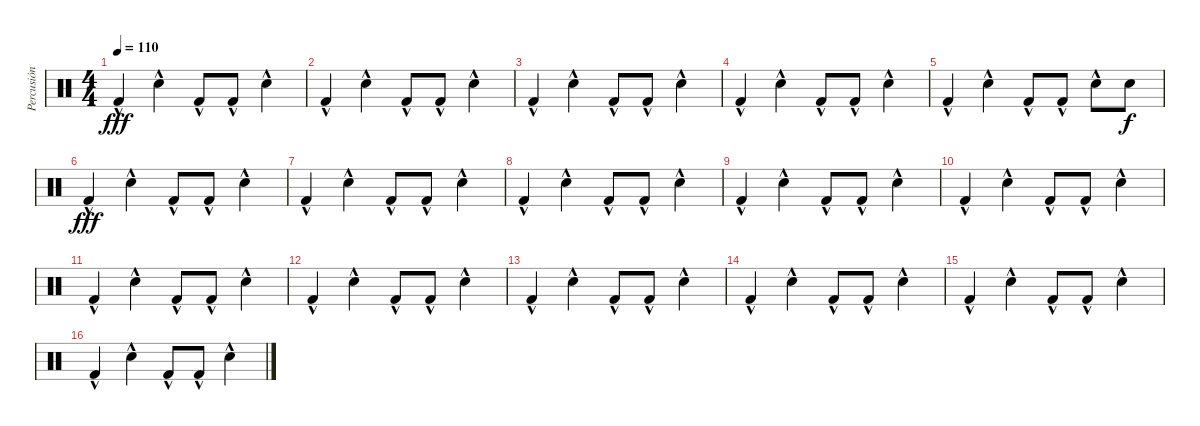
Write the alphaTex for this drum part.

\track ("Percusión" "Percusión") {instrument percussion}
\staff {score}
\articulation defaults
\ts (4 4)
\tempo 110
\clef neutral
\ks c "Kick (hit) 2"{hac}.4{dy fff} "Electric Snare (hit)"{hac}.4 "Kick (hit) 2"{hac}.8 "Kick (hit) 2"{hac}.8 "Electric Snare (hit)"{hac}.4
|
"Kick (hit) 2"{hac}.4 "Electric Snare (hit)"{hac}.4 "Kick (hit) 2"{hac}.8 "Kick (hit) 2"{hac}.8 "Electric Snare (hit)"{hac}.4 |
"Kick (hit) 2"{hac}.4 "Electric Snare (hit)"{hac}.4 "Kick (hit) 2"{hac}.8 "Kick (hit) 2"{hac}.8 "Electric Snare (hit)"{hac}.4 |
"Kick (hit) 2"{hac}.4 "Electric Snare (hit)"{hac}.4 "Kick (hit) 2"{hac}.8 "Kick (hit) 2"{hac}.8 "Electric Snare (hit)"{hac}.4 |
"Kick (hit) 2"{hac}.4 "Electric Snare (hit)"{hac}.4 "Kick (hit) 2"{hac}.8 "Kick (hit) 2"{hac}.8 "Electric Snare (hit)"{hac}.8 "Electric Snare (hit)".8{dy f} |
"Kick (hit) 2"{hac}.4{dy fff} "Electric Snare (hit)"{hac}.4 "Kick (hit) 2"{hac}.8 "Kick (hit) 2"{hac}.8 "Electric Snare (hit)"{hac}.4 |
"Kick (hit) 2"{hac}.4 "Electric Snare (hit)"{hac}.4 "Kick (hit) 2"{hac}.8 "Kick (hit) 2"{hac}.8 "Electric Snare (hit)"{hac}.4 |
"Kick (hit) 2"{hac}.4 "Electric Snare (hit)"{hac}.4 "Kick (hit) 2"{hac}.8 "Kick (hit) 2"{hac}.8 "Electric Snare (hit)"{hac}.4 |
"Kick (hit) 2"{hac}.4 "Electric Snare (hit)"{hac}.4 "Kick (hit) 2"{hac}.8 "Kick (hit) 2"{hac}.8 "Electric Snare (hit)"{hac}.4 |
"Kick (hit) 2"{hac}.4 "Electric Snare (hit)"{hac}.4 "Kick (hit) 2"{hac}.8 "Kick (hit) 2"{hac}.8 "Electric Snare (hit)"{hac}.4 |
"Kick (hit) 2"{hac}.4 "Electric Snare (hit)"{hac}.4 "Kick (hit) 2"{hac}.8 "Kick (hit) 2"{hac}.8 "Electric Snare (hit)"{hac}.4 |
"Kick (hit) 2"{hac}.4 "Electric Snare (hit)"{hac}.4 "Kick (hit) 2"{hac}.8 "Kick (hit) 2"{hac}.8 "Electric Snare (hit)"{hac}.4 |
"Kick (hit) 2"{hac}.4 "Electric Snare (hit)"{hac}.4 "Kick (hit) 2"{hac}.8 "Kick (hit) 2"{hac}.8 "Electric Snare (hit)"{hac}.4 |
"Kick (hit) 2"{hac}.4 "Electric Snare (hit)"{hac}.4 "Kick (hit) 2"{hac}.8 "Kick (hit) 2"{hac}.8 "Electric Snare (hit)"{hac}.4 |
"Kick (hit) 2"{hac}.4 "Electric Snare (hit)"{hac}.4 "Kick (hit) 2"{hac}.8 "Kick (hit) 2"{hac}.8 "Electric Snare (hit)"{hac}.4 |
"Kick (hit) 2"{hac}.4 "Electric Snare (hit)"{hac}.4 "Kick (hit) 2"{hac}.8 "Kick (hit) 2"{hac}.8 "Electric Snare (hit)"{hac}.4
